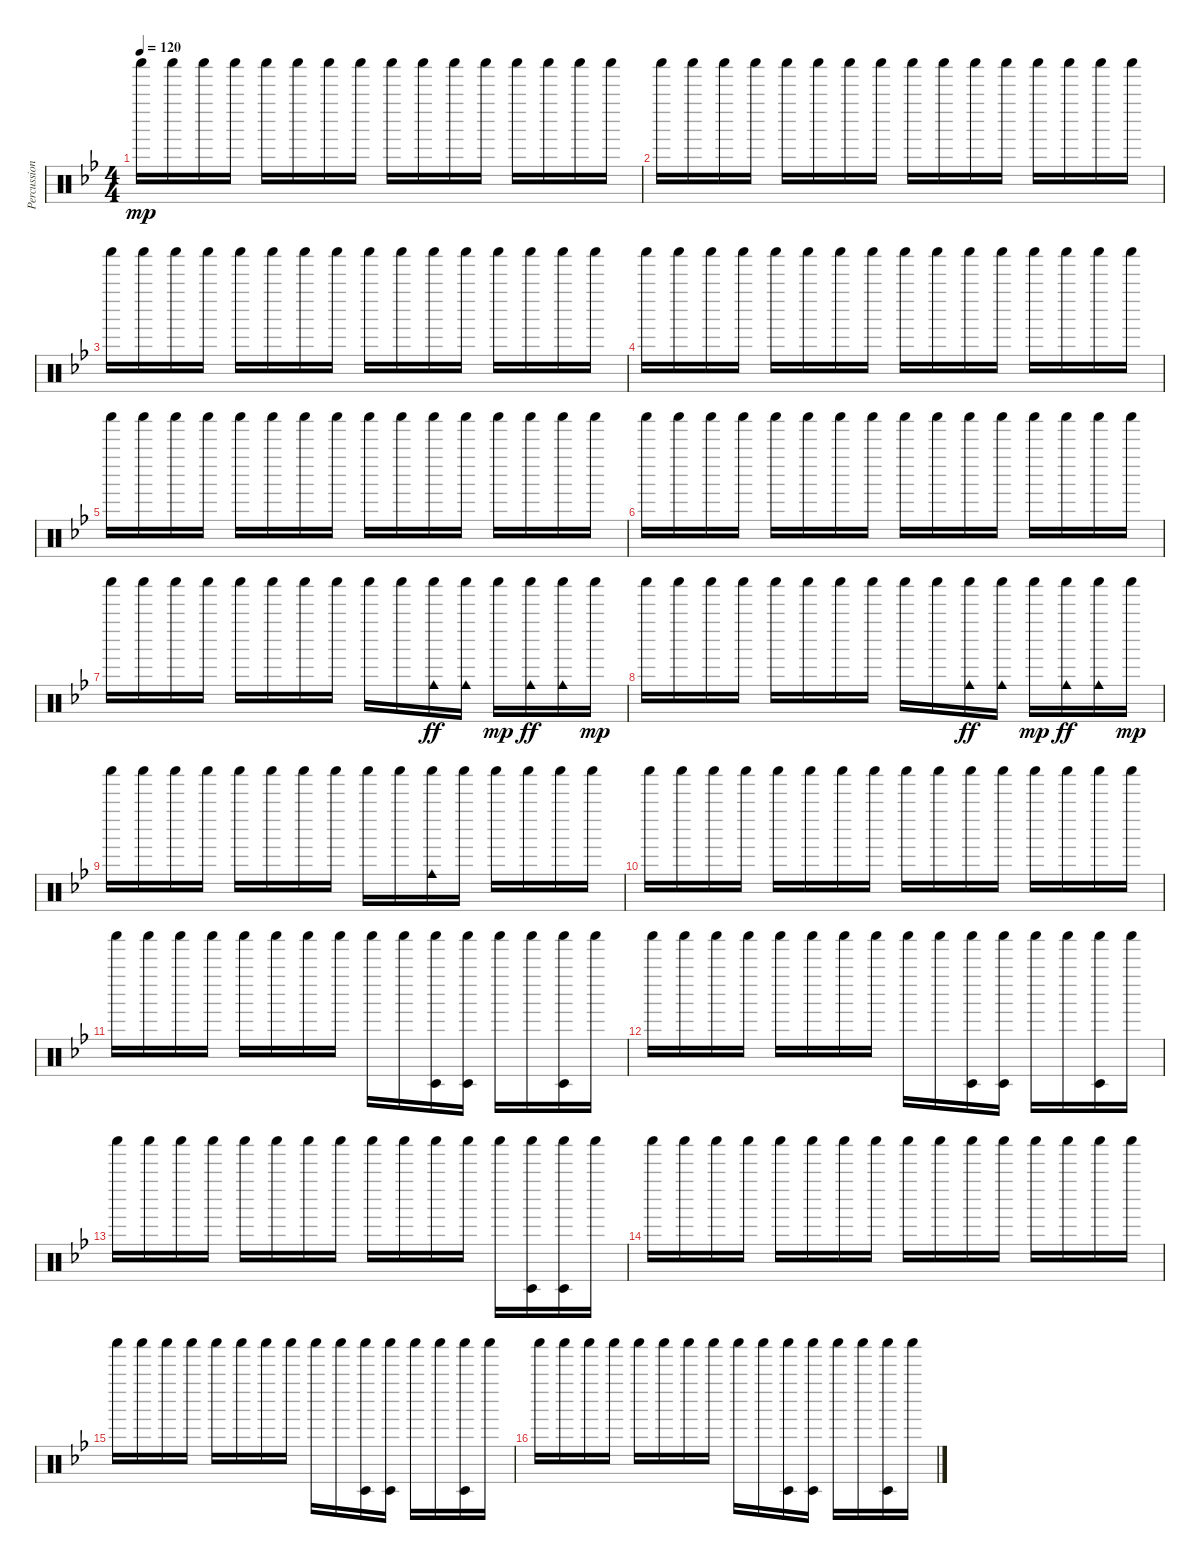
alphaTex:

\track ("Percussion" "Percussion") {instrument percussion}
\staff {score}
\articulation defaults
\ts (4 4)
\tempo 120
\clef neutral
\ks bb "Shaker (hit)".16{dy mp} "Shaker (hit)".16 "Shaker (hit)".16 "Shaker (hit)".16 "Shaker (hit)".16 "Shaker (hit)".16 "Shaker (hit)".16 "Shaker (hit)".16 "Shaker (hit)".16 "Shaker (hit)".16 "Shaker (hit)".16 "Shaker (hit)".16 "Shaker (hit)".16 "Shaker (hit)".16 "Shaker (hit)".16 "Shaker (hit)".16
|
"Shaker (hit)".16 "Shaker (hit)".16 "Shaker (hit)".16 "Shaker (hit)".16 "Shaker (hit)".16 "Shaker (hit)".16 "Shaker (hit)".16 "Shaker (hit)".16 "Shaker (hit)".16 "Shaker (hit)".16 "Shaker (hit)".16 "Shaker (hit)".16 "Shaker (hit)".16 "Shaker (hit)".16 "Shaker (hit)".16 "Shaker (hit)".16 |
"Shaker (hit)".16 "Shaker (hit)".16 "Shaker (hit)".16 "Shaker (hit)".16 "Shaker (hit)".16 "Shaker (hit)".16 "Shaker (hit)".16 "Shaker (hit)".16 "Shaker (hit)".16 "Shaker (hit)".16 "Shaker (hit)".16 "Shaker (hit)".16 "Shaker (hit)".16 "Shaker (hit)".16 "Shaker (hit)".16 "Shaker (hit)".16 |
"Shaker (hit)".16 "Shaker (hit)".16 "Shaker (hit)".16 "Shaker (hit)".16 "Shaker (hit)".16 "Shaker (hit)".16 "Shaker (hit)".16 "Shaker (hit)".16 "Shaker (hit)".16 "Shaker (hit)".16 "Shaker (hit)".16 "Shaker (hit)".16 "Shaker (hit)".16 "Shaker (hit)".16 "Shaker (hit)".16 "Shaker (hit)".16 |
"Shaker (hit)".16 "Shaker (hit)".16 "Shaker (hit)".16 "Shaker (hit)".16 "Shaker (hit)".16 "Shaker (hit)".16 "Shaker (hit)".16 "Shaker (hit)".16 "Shaker (hit)".16 "Shaker (hit)".16 "Shaker (hit)".16 "Shaker (hit)".16 "Shaker (hit)".16 "Shaker (hit)".16 "Shaker (hit)".16 "Shaker (hit)".16 |
"Shaker (hit)".16 "Shaker (hit)".16 "Shaker (hit)".16 "Shaker (hit)".16 "Shaker (hit)".16 "Shaker (hit)".16 "Shaker (hit)".16 "Shaker (hit)".16 "Shaker (hit)".16 "Shaker (hit)".16 "Shaker (hit)".16 "Shaker (hit)".16 "Shaker (hit)".16 "Shaker (hit)".16 "Shaker (hit)".16 "Shaker (hit)".16 |
"Shaker (hit)".16 "Shaker (hit)".16 "Shaker (hit)".16 "Shaker (hit)".16 "Shaker (hit)".16 "Shaker (hit)".16 "Shaker (hit)".16 "Shaker (hit)".16 "Shaker (hit)".16 "Shaker (hit)".16 ("Shaker (hit)" "Cowbell medium (hit)").16{dy ff} ("Shaker (hit)" "Cowbell medium (hit)").16 "Shaker (hit)".16{dy mp} ("Shaker (hit)" "Cowbell medium (hit)").16{dy ff} ("Shaker (hit)" "Cowbell medium (hit)").16 "Shaker (hit)".16{dy mp} |
"Shaker (hit)".16 "Shaker (hit)".16 "Shaker (hit)".16 "Shaker (hit)".16 "Shaker (hit)".16 "Shaker (hit)".16 "Shaker (hit)".16 "Shaker (hit)".16 "Shaker (hit)".16 "Shaker (hit)".16 ("Shaker (hit)" "Cowbell medium (hit)").16{dy ff} ("Shaker (hit)" "Cowbell medium (hit)").16 "Shaker (hit)".16{dy mp} ("Shaker (hit)" "Cowbell medium (hit)").16{dy ff} ("Shaker (hit)" "Cowbell medium (hit)").16 "Shaker (hit)".16{dy mp} |
"Shaker (hit)".16 "Shaker (hit)".16 "Shaker (hit)".16 "Shaker (hit)".16 "Shaker (hit)".16 "Shaker (hit)".16 "Shaker (hit)".16 "Shaker (hit)".16 "Shaker (hit)".16 "Shaker (hit)".16 ("Shaker (hit)" "Cowbell medium (hit)").16 "Shaker (hit)".16 "Shaker (hit)".16 "Shaker (hit)".16 "Shaker (hit)".16 "Shaker (hit)".16 |
"Shaker (hit)".16 "Shaker (hit)".16 "Shaker (hit)".16 "Shaker (hit)".16 "Shaker (hit)".16 "Shaker (hit)".16 "Shaker (hit)".16 "Shaker (hit)".16 "Shaker (hit)".16 "Shaker (hit)".16 "Shaker (hit)".16 "Shaker (hit)".16 "Shaker (hit)".16 "Shaker (hit)".16 "Shaker (hit)".16 "Shaker (hit)".16 |
"Shaker (hit)".16 "Shaker (hit)".16 "Shaker (hit)".16 "Shaker (hit)".16 "Shaker (hit)".16 "Shaker (hit)".16 "Shaker (hit)".16 "Shaker (hit)".16 "Shaker (hit)".16 "Shaker (hit)".16 ("Shaker (hit)" "Timbale low (hit)").16 ("Shaker (hit)" "Timbale low (hit)").16 "Shaker (hit)".16 "Shaker (hit)".16 ("Shaker (hit)" "Timbale low (hit)").16 "Shaker (hit)".16 |
"Shaker (hit)".16 "Shaker (hit)".16 "Shaker (hit)".16 "Shaker (hit)".16 "Shaker (hit)".16 "Shaker (hit)".16 "Shaker (hit)".16 "Shaker (hit)".16 "Shaker (hit)".16 "Shaker (hit)".16 ("Shaker (hit)" "Timbale low (hit)").16 ("Shaker (hit)" "Timbale low (hit)").16 "Shaker (hit)".16 "Shaker (hit)".16 ("Shaker (hit)" "Timbale low (hit)").16 "Shaker (hit)".16 |
"Shaker (hit)".16 "Shaker (hit)".16 "Shaker (hit)".16 "Shaker (hit)".16 "Shaker (hit)".16 "Shaker (hit)".16 "Shaker (hit)".16 "Shaker (hit)".16 "Shaker (hit)".16 "Shaker (hit)".16 "Shaker (hit)".16 "Shaker (hit)".16 "Shaker (hit)".16 ("Shaker (hit)" "Timbale low (hit)").16 ("Shaker (hit)" "Timbale low (hit)").16 "Shaker (hit)".16 |
"Shaker (hit)".16 "Shaker (hit)".16 "Shaker (hit)".16 "Shaker (hit)".16 "Shaker (hit)".16 "Shaker (hit)".16 "Shaker (hit)".16 "Shaker (hit)".16 "Shaker (hit)".16 "Shaker (hit)".16 "Shaker (hit)".16 "Shaker (hit)".16 "Shaker (hit)".16 "Shaker (hit)".16 "Shaker (hit)".16 "Shaker (hit)".16 |
"Shaker (hit)".16 "Shaker (hit)".16 "Shaker (hit)".16 "Shaker (hit)".16 "Shaker (hit)".16 "Shaker (hit)".16 "Shaker (hit)".16 "Shaker (hit)".16 "Shaker (hit)".16 "Shaker (hit)".16 ("Shaker (hit)" "Timbale low (hit)").16 ("Shaker (hit)" "Timbale low (hit)").16 "Shaker (hit)".16 "Shaker (hit)".16 ("Shaker (hit)" "Timbale low (hit)").16 "Shaker (hit)".16 |
"Shaker (hit)".16 "Shaker (hit)".16 "Shaker (hit)".16 "Shaker (hit)".16 "Shaker (hit)".16 "Shaker (hit)".16 "Shaker (hit)".16 "Shaker (hit)".16 "Shaker (hit)".16 "Shaker (hit)".16 ("Shaker (hit)" "Timbale low (hit)").16 ("Shaker (hit)" "Timbale low (hit)").16 "Shaker (hit)".16 "Shaker (hit)".16 ("Shaker (hit)" "Timbale low (hit)").16 "Shaker (hit)".16
